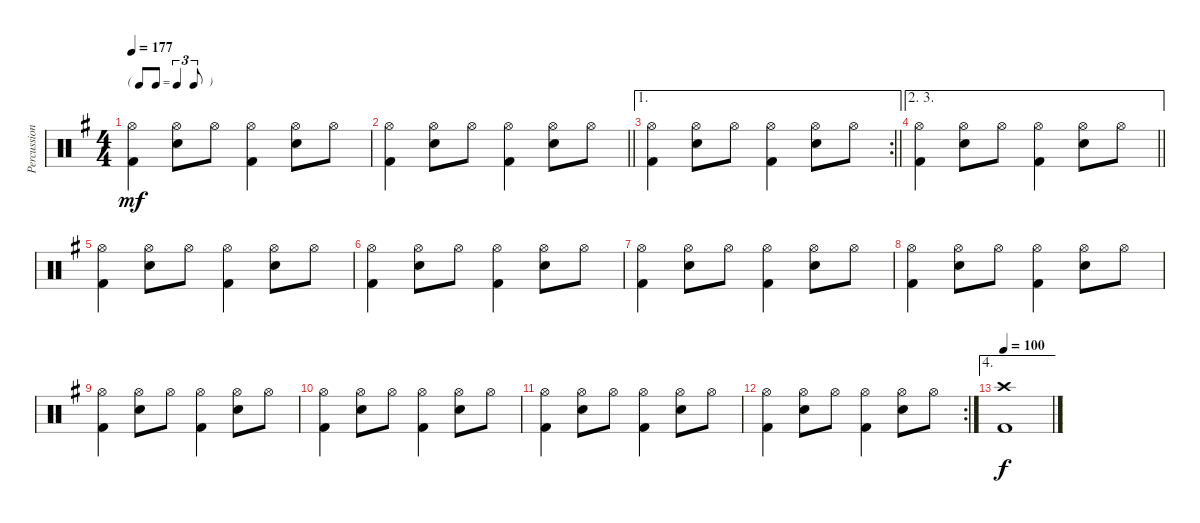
\track ("Percussion" "Percussion") {instrument percussion}
\staff {score}
\articulation defaults
\ts (4 4)
\tf triplet8th
\tempo 177
\clef neutral
\ks g
("Hi-Hat (open)" "Kick (hit) 2").4{dy mf} ("Hi-Hat (open)" "Snare (hit) 2").8 "Hi-Hat (open)".8 ("Hi-Hat (open)" "Kick (hit) 2").4 ("Hi-Hat (open)" "Snare (hit) 2").8 "Hi-Hat (open)".8 |
\barLineRight lightlight
("Hi-Hat (open)" "Kick (hit) 2").4 ("Hi-Hat (open)" "Snare (hit) 2").8 "Hi-Hat (open)".8 ("Hi-Hat (open)" "Kick (hit) 2").4 ("Hi-Hat (open)" "Snare (hit) 2").8 "Hi-Hat (open)".8 |
\ae 1
\rc 2
\barLineRight lightlight
("Hi-Hat (open)" "Kick (hit) 2").4 ("Hi-Hat (open)" "Snare (hit) 2").8 "Hi-Hat (open)".8 ("Hi-Hat (open)" "Kick (hit) 2").4 ("Hi-Hat (open)" "Snare (hit) 2").8 "Hi-Hat (open)".8 |
\ae (2 3)
\barLineRight lightlight
("Hi-Hat (open)" "Kick (hit) 2").4 ("Hi-Hat (open)" "Snare (hit) 2").8 "Hi-Hat (open)".8 ("Hi-Hat (open)" "Kick (hit) 2").4 ("Hi-Hat (open)" "Snare (hit) 2").8 "Hi-Hat (open)".8 |
("Hi-Hat (open)" "Kick (hit) 2").4 ("Hi-Hat (open)" "Snare (hit) 2").8 "Hi-Hat (open)".8 ("Hi-Hat (open)" "Kick (hit) 2").4 ("Hi-Hat (open)" "Snare (hit) 2").8 "Hi-Hat (open)".8 |
("Hi-Hat (open)" "Kick (hit) 2").4 ("Hi-Hat (open)" "Snare (hit) 2").8 "Hi-Hat (open)".8 ("Hi-Hat (open)" "Kick (hit) 2").4 ("Hi-Hat (open)" "Snare (hit) 2").8 "Hi-Hat (open)".8 |
("Hi-Hat (open)" "Kick (hit) 2").4 ("Hi-Hat (open)" "Snare (hit) 2").8 "Hi-Hat (open)".8 ("Hi-Hat (open)" "Kick (hit) 2").4 ("Hi-Hat (open)" "Snare (hit) 2").8 "Hi-Hat (open)".8 |
("Hi-Hat (open)" "Kick (hit) 2").4 ("Hi-Hat (open)" "Snare (hit) 2").8 "Hi-Hat (open)".8 ("Hi-Hat (open)" "Kick (hit) 2").4 ("Hi-Hat (open)" "Snare (hit) 2").8 "Hi-Hat (open)".8 |
("Hi-Hat (open)" "Kick (hit) 2").4 ("Hi-Hat (open)" "Snare (hit) 2").8 "Hi-Hat (open)".8 ("Hi-Hat (open)" "Kick (hit) 2").4 ("Hi-Hat (open)" "Snare (hit) 2").8 "Hi-Hat (open)".8 |
("Hi-Hat (open)" "Kick (hit) 2").4 ("Hi-Hat (open)" "Snare (hit) 2").8 "Hi-Hat (open)".8 ("Hi-Hat (open)" "Kick (hit) 2").4 ("Hi-Hat (open)" "Snare (hit) 2").8 "Hi-Hat (open)".8 |
("Hi-Hat (open)" "Kick (hit) 2").4 ("Hi-Hat (open)" "Snare (hit) 2").8 "Hi-Hat (open)".8 ("Hi-Hat (open)" "Kick (hit) 2").4 ("Hi-Hat (open)" "Snare (hit) 2").8 "Hi-Hat (open)".8 |
\rc 2
("Hi-Hat (open)" "Kick (hit) 2").4 ("Hi-Hat (open)" "Snare (hit) 2").8 "Hi-Hat (open)".8 ("Hi-Hat (open)" "Kick (hit) 2").4 ("Hi-Hat (open)" "Snare (hit) 2").8 "Hi-Hat (open)".8 |
\ae 4
\tempo 100
("Crash high (hit)" "Kick (hit) 2").1{dy f}
